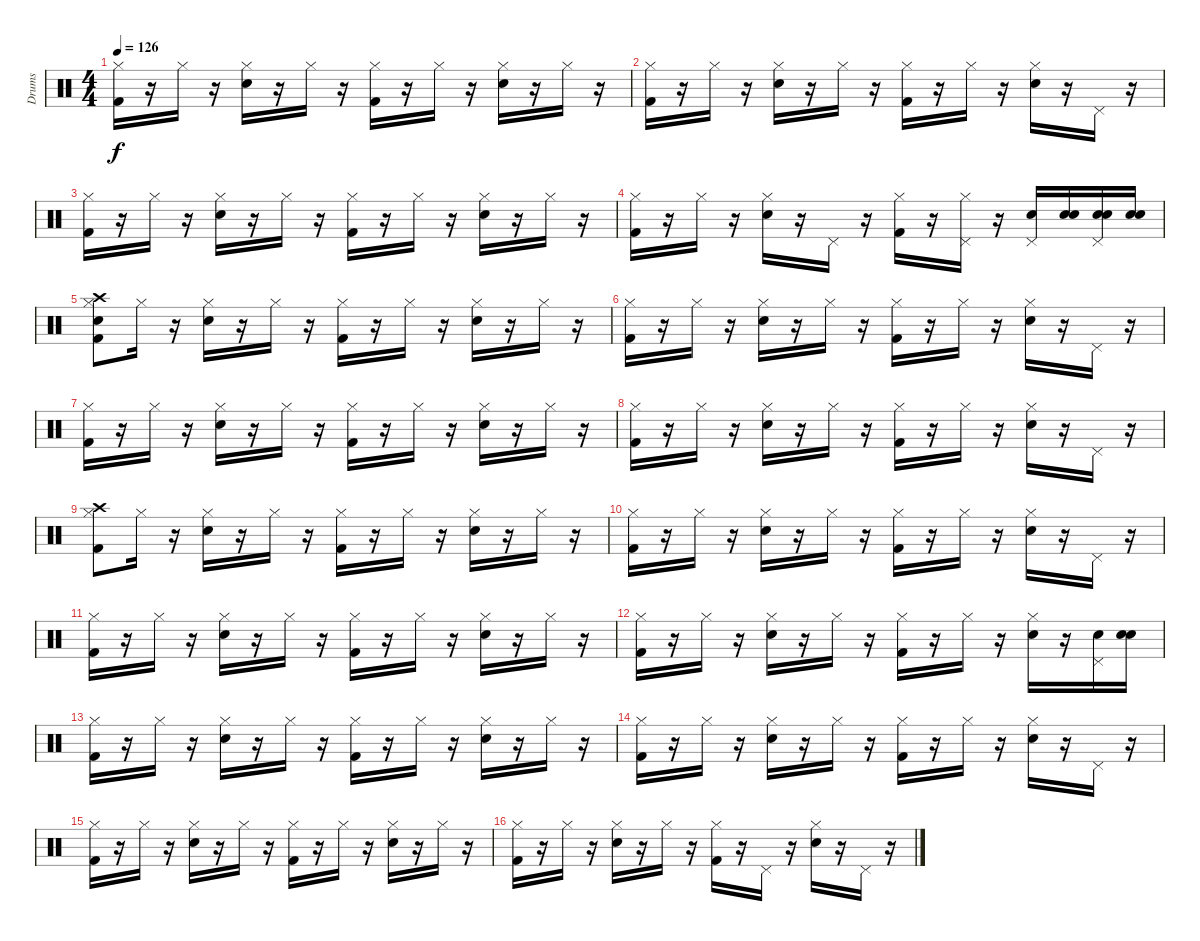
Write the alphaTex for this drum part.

\track ("Drums   " "Drums   ") {instrument percussion}
\staff {score}
\articulation defaults
\ts (4 4)
\tempo 126
\clef neutral
\ks c
("Kick (hit) 2" "Hi-Hat (closed)").16{dy f} r.16 "Hi-Hat (closed)".16 r.16 ("Snare (hit) 2" "Hi-Hat (closed)").16 r.16 "Hi-Hat (closed)".16 r.16 ("Kick (hit) 2" "Hi-Hat (closed)").16 r.16 "Hi-Hat (closed)".16 r.16 ("Snare (hit) 2" "Hi-Hat (closed)").16 r.16 "Hi-Hat (closed)".16 r.16 |
("Kick (hit) 2" "Hi-Hat (closed)").16 r.16 "Hi-Hat (closed)".16 r.16 ("Snare (hit) 2" "Hi-Hat (closed)").16 r.16 "Hi-Hat (closed)".16 r.16 ("Kick (hit) 2" "Hi-Hat (closed)").16 r.16 "Hi-Hat (closed)".16 r.16 ("Snare (hit) 2" "Hi-Hat (closed)").16 r.16 "Pedal Hi-Hat (hit)".16 r.16 |
("Kick (hit) 2" "Hi-Hat (closed)").16 r.16 "Hi-Hat (closed)".16 r.16 ("Snare (hit) 2" "Hi-Hat (closed)").16 r.16 "Hi-Hat (closed)".16 r.16 ("Kick (hit) 2" "Hi-Hat (closed)").16 r.16 "Hi-Hat (closed)".16 r.16 ("Snare (hit) 2" "Hi-Hat (closed)").16 r.16 "Hi-Hat (closed)".16 r.16 |
("Kick (hit) 2" "Hi-Hat (closed)").16 r.16 "Hi-Hat (closed)".16 r.16 ("Snare (hit) 2" "Hi-Hat (closed)").16 r.16 "Pedal Hi-Hat (hit)".16 r.16 ("Kick (hit) 2" "Hi-Hat (closed)").16 r.16 ("Hi-Hat (closed)" "Pedal Hi-Hat (hit)").16 r.16 ("Snare (hit) 2" "Pedal Hi-Hat (hit)").16 ("Snare (hit)" "Snare (hit) 2").16 ("Snare (hit)" "Snare (hit) 2" "Pedal Hi-Hat (hit)").16 ("Snare (hit)" "Snare (hit) 2").16 |
("Snare (hit)" "Kick (hit) 2" "Hi-Hat (closed)" "Crash high (hit)").8 "Hi-Hat (closed)".16 r.16 ("Snare (hit) 2" "Hi-Hat (closed)").16 r.16 "Hi-Hat (closed)".16 r.16 ("Kick (hit) 2" "Hi-Hat (closed)").16 r.16 "Hi-Hat (closed)".16 r.16 ("Snare (hit) 2" "Hi-Hat (closed)").16 r.16 "Hi-Hat (closed)".16 r.16 |
("Kick (hit) 2" "Hi-Hat (closed)").16 r.16 "Hi-Hat (closed)".16 r.16 ("Snare (hit) 2" "Hi-Hat (closed)").16 r.16 "Hi-Hat (closed)".16 r.16 ("Kick (hit) 2" "Hi-Hat (closed)").16 r.16 "Hi-Hat (closed)".16 r.16 ("Snare (hit) 2" "Hi-Hat (closed)").16 r.16 "Pedal Hi-Hat (hit)".16 r.16 |
("Kick (hit) 2" "Hi-Hat (closed)").16 r.16 "Hi-Hat (closed)".16 r.16 ("Snare (hit) 2" "Hi-Hat (closed)").16 r.16 "Hi-Hat (closed)".16 r.16 ("Kick (hit) 2" "Hi-Hat (closed)").16 r.16 "Hi-Hat (closed)".16 r.16 ("Snare (hit) 2" "Hi-Hat (closed)").16 r.16 "Hi-Hat (closed)".16 r.16 |
("Kick (hit) 2" "Hi-Hat (closed)").16 r.16 "Hi-Hat (closed)".16 r.16 ("Snare (hit) 2" "Hi-Hat (closed)").16 r.16 "Hi-Hat (closed)".16 r.16 ("Kick (hit) 2" "Hi-Hat (closed)").16 r.16 "Hi-Hat (closed)".16 r.16 ("Snare (hit) 2" "Hi-Hat (closed)").16 r.16 "Pedal Hi-Hat (hit)".16 r.16 |
("Kick (hit) 2" "Hi-Hat (closed)" "Crash high (hit)").8 "Hi-Hat (closed)".16 r.16 ("Snare (hit) 2" "Hi-Hat (closed)").16 r.16 "Hi-Hat (closed)".16 r.16 ("Kick (hit) 2" "Hi-Hat (closed)").16 r.16 "Hi-Hat (closed)".16 r.16 ("Snare (hit) 2" "Hi-Hat (closed)").16 r.16 "Hi-Hat (closed)".16 r.16 |
("Kick (hit) 2" "Hi-Hat (closed)").16 r.16 "Hi-Hat (closed)".16 r.16 ("Snare (hit) 2" "Hi-Hat (closed)").16 r.16 "Hi-Hat (closed)".16 r.16 ("Kick (hit) 2" "Hi-Hat (closed)").16 r.16 "Hi-Hat (closed)".16 r.16 ("Snare (hit) 2" "Hi-Hat (closed)").16 r.16 "Pedal Hi-Hat (hit)".16 r.16 |
("Kick (hit) 2" "Hi-Hat (closed)").16 r.16 "Hi-Hat (closed)".16 r.16 ("Snare (hit) 2" "Hi-Hat (closed)").16 r.16 "Hi-Hat (closed)".16 r.16 ("Kick (hit) 2" "Hi-Hat (closed)").16 r.16 "Hi-Hat (closed)".16 r.16 ("Snare (hit) 2" "Hi-Hat (closed)").16 r.16 "Hi-Hat (closed)".16 r.16 |
("Kick (hit) 2" "Hi-Hat (closed)").16 r.16 "Hi-Hat (closed)".16 r.16 ("Snare (hit) 2" "Hi-Hat (closed)").16 r.16 "Hi-Hat (closed)".16 r.16 ("Kick (hit) 2" "Hi-Hat (closed)").16 r.16 "Hi-Hat (closed)".16 r.16 ("Snare (hit) 2" "Hi-Hat (closed)").16 r.16 ("Snare (hit) 2" "Pedal Hi-Hat (hit)").16 ("Snare (hit)" "Snare (hit) 2").16 |
("Kick (hit) 2" "Hi-Hat (closed)").16 r.16 "Hi-Hat (closed)".16 r.16 ("Snare (hit) 2" "Hi-Hat (closed)").16 r.16 "Hi-Hat (closed)".16 r.16 ("Kick (hit) 2" "Hi-Hat (closed)").16 r.16 "Hi-Hat (closed)".16 r.16 ("Snare (hit) 2" "Hi-Hat (closed)").16 r.16 "Hi-Hat (closed)".16 r.16 |
("Kick (hit) 2" "Hi-Hat (closed)").16 r.16 "Hi-Hat (closed)".16 r.16 ("Snare (hit) 2" "Hi-Hat (closed)").16 r.16 "Hi-Hat (closed)".16 r.16 ("Kick (hit) 2" "Hi-Hat (closed)").16 r.16 "Hi-Hat (closed)".16 r.16 ("Snare (hit) 2" "Hi-Hat (closed)").16 r.16 "Pedal Hi-Hat (hit)".16 r.16 |
("Kick (hit) 2" "Hi-Hat (closed)").16 r.16 "Hi-Hat (closed)".16 r.16 ("Snare (hit) 2" "Hi-Hat (closed)").16 r.16 "Hi-Hat (closed)".16 r.16 ("Kick (hit) 2" "Hi-Hat (closed)").16 r.16 "Hi-Hat (closed)".16 r.16 ("Snare (hit) 2" "Hi-Hat (closed)").16 r.16 "Hi-Hat (closed)".16 r.16 |
("Kick (hit) 2" "Hi-Hat (closed)").16 r.16 "Hi-Hat (closed)".16 r.16 ("Snare (hit) 2" "Hi-Hat (closed)").16 r.16 "Hi-Hat (closed)".16 r.16 ("Kick (hit) 2" "Hi-Hat (closed)").16 r.16 "Pedal Hi-Hat (hit)".16 r.16 ("Snare (hit) 2" "Hi-Hat (closed)").16 r.16 "Pedal Hi-Hat (hit)".16 r.16
